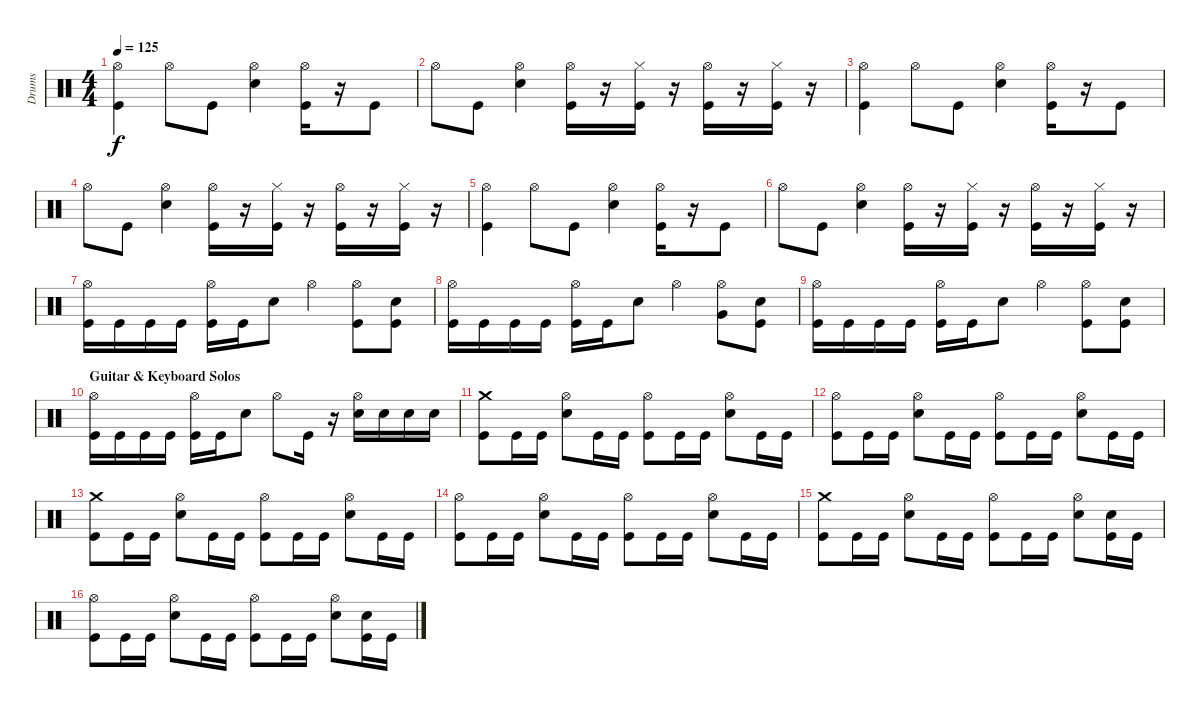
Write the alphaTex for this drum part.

\track ("Drums" "Drums") {instrument percussion}
\staff {score}
\articulation defaults
\ts (4 4)
\tempo 125
\clef neutral
\ks c
("Hi-Hat (open)" "Kick (hit)").4{dy f} "Hi-Hat (open)".8 "Kick (hit)".8 ("Hi-Hat (open)" "Electric Snare (hit)").4 ("Hi-Hat (open)" "Kick (hit)").16 r.16 "Kick (hit)".8 |
"Hi-Hat (open)".8 "Kick (hit)".8 ("Hi-Hat (open)" "Electric Snare (hit)").4 ("Hi-Hat (open)" "Kick (hit)").16 r.16 ("Hi-Hat (closed)" "Kick (hit)").16 r.16 ("Hi-Hat (open)" "Kick (hit)").16 r.16 ("Hi-Hat (closed)" "Kick (hit)").16 r.16 |
("Hi-Hat (open)" "Kick (hit)").4 "Hi-Hat (open)".8 "Kick (hit)".8 ("Hi-Hat (open)" "Electric Snare (hit)").4 ("Hi-Hat (open)" "Kick (hit)").16 r.16 "Kick (hit)".8 |
"Hi-Hat (open)".8 "Kick (hit)".8 ("Hi-Hat (open)" "Electric Snare (hit)").4 ("Hi-Hat (open)" "Kick (hit)").16 r.16 ("Hi-Hat (closed)" "Kick (hit)").16 r.16 ("Hi-Hat (open)" "Kick (hit)").16 r.16 ("Hi-Hat (closed)" "Kick (hit)").16 r.16 |
("Hi-Hat (open)" "Kick (hit)").4 "Hi-Hat (open)".8 "Kick (hit)".8 ("Hi-Hat (open)" "Electric Snare (hit)").4 ("Hi-Hat (open)" "Kick (hit)").16 r.16 "Kick (hit)".8 |
"Hi-Hat (open)".8 "Kick (hit)".8 ("Hi-Hat (open)" "Electric Snare (hit)").4 ("Hi-Hat (open)" "Kick (hit)").16 r.16 ("Hi-Hat (closed)" "Kick (hit)").16 r.16 ("Hi-Hat (open)" "Kick (hit)").16 r.16 ("Hi-Hat (closed)" "Kick (hit)").16 r.16 |
("Hi-Hat (open)" "Kick (hit)").16 "Kick (hit)".16 "Kick (hit)".16 "Kick (hit)".16 ("Hi-Hat (open)" "Kick (hit)").16 "Kick (hit)".16 "Electric Snare (hit)".8 "Hi-Hat (open)".4 ("Hi-Hat (open)" "Kick (hit)").8 ("Electric Snare (hit)" "Kick (hit)").8 |
("Hi-Hat (open)" "Kick (hit)").16 "Kick (hit)".16 "Kick (hit)".16 "Kick (hit)".16 ("Hi-Hat (open)" "Kick (hit)").16 "Kick (hit)".16 "Electric Snare (hit)".8 "Hi-Hat (open)".4 ("Hi-Hat (open)" "Very Low Tom (hit)").8 ("Electric Snare (hit)" "Kick (hit)").8 |
("Hi-Hat (open)" "Kick (hit)").16 "Kick (hit)".16 "Kick (hit)".16 "Kick (hit)".16 ("Hi-Hat (open)" "Kick (hit)").16 "Kick (hit)".16 "Electric Snare (hit)".8 "Hi-Hat (open)".4 ("Hi-Hat (open)" "Kick (hit)").8 ("Electric Snare (hit)" "Kick (hit)").8 |
\section ("" "Guitar & Keyboard Solos")
("Hi-Hat (open)" "Kick (hit)").16 "Kick (hit)".16 "Kick (hit)".16 "Kick (hit)".16 ("Hi-Hat (open)" "Kick (hit)").16 "Kick (hit)".16 "Electric Snare (hit)".8 "Hi-Hat (open)".8 "Kick (hit)".16 r.16 ("Hi-Hat (open)" "Electric Snare (hit)").16 "Electric Snare (hit)".16 "Electric Snare (hit)".16 "Electric Snare (hit)".16 |
("Crash medium (hit)" "Kick (hit)").8 "Kick (hit)".16 "Kick (hit)".16 ("Hi-Hat (open)" "Electric Snare (hit)").8 "Kick (hit)".16 "Kick (hit)".16 ("Hi-Hat (open)" "Kick (hit)").8 "Kick (hit)".16 "Kick (hit)".16 ("Hi-Hat (open)" "Electric Snare (hit)").8 "Kick (hit)".16 "Kick (hit)".16 |
("Hi-Hat (open)" "Kick (hit)").8 "Kick (hit)".16 "Kick (hit)".16 ("Hi-Hat (open)" "Electric Snare (hit)").8 "Kick (hit)".16 "Kick (hit)".16 ("Hi-Hat (open)" "Kick (hit)").8 "Kick (hit)".16 "Kick (hit)".16 ("Hi-Hat (open)" "Electric Snare (hit)").8 "Kick (hit)".16 "Kick (hit)".16 |
("Crash medium (hit)" "Kick (hit)").8 "Kick (hit)".16 "Kick (hit)".16 ("Hi-Hat (open)" "Electric Snare (hit)").8 "Kick (hit)".16 "Kick (hit)".16 ("Hi-Hat (open)" "Kick (hit)").8 "Kick (hit)".16 "Kick (hit)".16 ("Hi-Hat (open)" "Electric Snare (hit)").8 "Kick (hit)".16 "Kick (hit)".16 |
("Hi-Hat (open)" "Kick (hit)").8 "Kick (hit)".16 "Kick (hit)".16 ("Hi-Hat (open)" "Electric Snare (hit)").8 "Kick (hit)".16 "Kick (hit)".16 ("Hi-Hat (open)" "Kick (hit)").8 "Kick (hit)".16 "Kick (hit)".16 ("Hi-Hat (open)" "Electric Snare (hit)").8 "Kick (hit)".16 "Kick (hit)".16 |
("Crash medium (hit)" "Kick (hit)").8 "Kick (hit)".16 "Kick (hit)".16 ("Hi-Hat (open)" "Electric Snare (hit)").8 "Kick (hit)".16 "Kick (hit)".16 ("Hi-Hat (open)" "Kick (hit)").8 "Kick (hit)".16 "Kick (hit)".16 ("Hi-Hat (open)" "Electric Snare (hit)").8 ("Electric Snare (hit)" "Kick (hit)").16 "Kick (hit)".16 |
("Hi-Hat (open)" "Kick (hit)").8 "Kick (hit)".16 "Kick (hit)".16 ("Hi-Hat (open)" "Electric Snare (hit)").8 "Kick (hit)".16 "Kick (hit)".16 ("Hi-Hat (open)" "Kick (hit)").8 "Kick (hit)".16 "Kick (hit)".16 ("Hi-Hat (open)" "Electric Snare (hit)").8 ("Electric Snare (hit)" "Kick (hit)").16 "Kick (hit)".16
